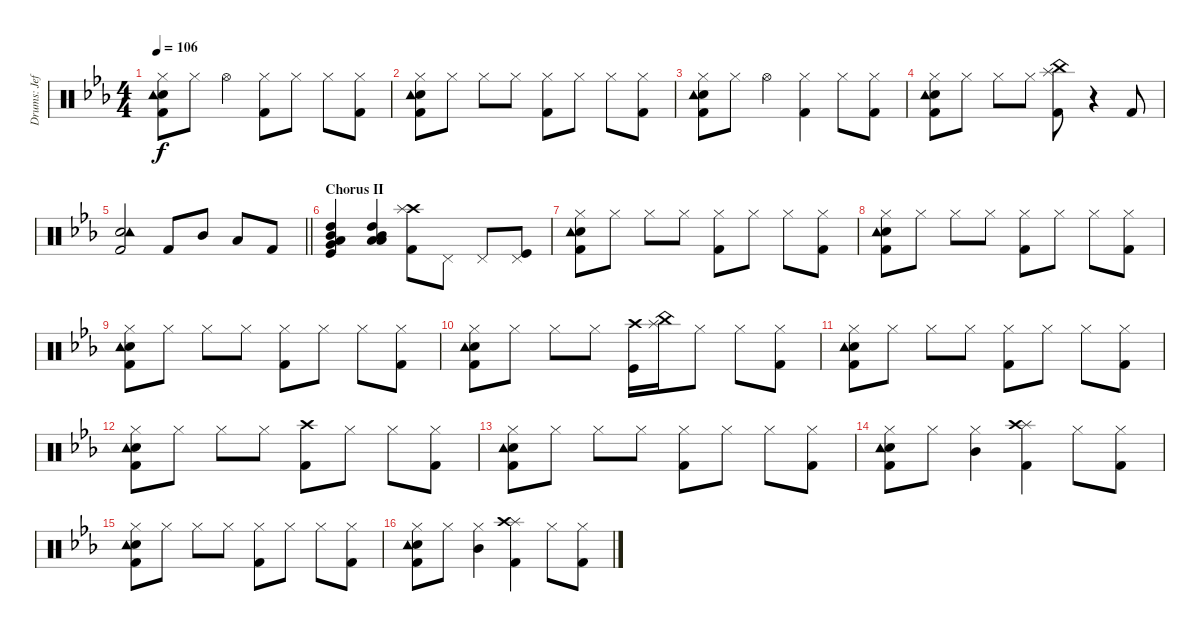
\track ("Drums: Jeff" "Drums: Jef") {instrument percussion}
\staff {score}
\articulation defaults
\ts (4 4)
\tempo 106
\clef neutral
\ks eb
("Hi-Hat (closed)" "Snare (hit) 2" "Tambourine (hit)" "Kick (hit) 2").8{dy f} "Hi-Hat (closed)".8 "Hi-Hat (open)".4 ("Hi-Hat (closed)" "Kick (hit) 2").8 "Hi-Hat (closed)".8 "Hi-Hat (closed)".8 ("Hi-Hat (closed)" "Kick (hit) 2").8 |
("Hi-Hat (closed)" "Snare (hit) 2" "Tambourine (hit)" "Kick (hit) 2").8 "Hi-Hat (closed)".8 "Hi-Hat (closed)".8 "Hi-Hat (closed)".8 ("Hi-Hat (closed)" "Kick (hit) 2").8 "Hi-Hat (closed)".8 "Hi-Hat (closed)".8 ("Hi-Hat (closed)" "Kick (hit) 2").8 |
("Hi-Hat (closed)" "Snare (hit) 2" "Tambourine (hit)" "Kick (hit) 2").8 "Hi-Hat (closed)".8 "Hi-Hat (open)".4 ("Hi-Hat (closed)" "Kick (hit) 2").4 "Hi-Hat (closed)".8 ("Hi-Hat (closed)" "Kick (hit) 2").8 |
("Hi-Hat (closed)" "Snare (hit) 2" "Tambourine (hit)" "Kick (hit) 2").8 "Hi-Hat (closed)".8 "Hi-Hat (closed)".8 "Hi-Hat (closed)".8 ("China (hit)" "Splash (hit)" "Kick (hit) 2").8 r.4 "Kick (hit) 2".8 |
\barLineRight lightlight
("Snare (hit) 2" "Tambourine (hit)" "Kick (hit) 2").2 "Kick (hit) 2".8 "Mid Tom (hit)".8 "Low Tom (hit)".8 "Kick (hit) 2".8 |
\section ("" "Chorus II")
("Very Low Tom (hit)" "Mid Tom (hit)" "Low Tom (hit)" "High Tom (hit)" "Kick (hit)").4 ("Low Floor Tom (hit)" "High Tom (hit)" "Mid Tom (hit)" "Low Tom (hit)").4 ("Crash high (hit)" "Splash (hit)" "Kick (hit) 2").8 "Pedal Hi-Hat (hit)".8 "Pedal Hi-Hat (hit)".8 ("Kick (hit)" "Pedal Hi-Hat (hit)").8 |
("Hi-Hat (closed)" "Snare (hit) 2" "Tambourine (hit)" "Kick (hit) 2").8 "Hi-Hat (closed)".8 "Hi-Hat (closed)".8 "Hi-Hat (closed)".8 ("Hi-Hat (closed)" "Kick (hit) 2").8 "Hi-Hat (closed)".8 "Hi-Hat (closed)".8 ("Hi-Hat (closed)" "Kick (hit) 2").8 |
("Hi-Hat (closed)" "Snare (hit) 2" "Tambourine (hit)" "Kick (hit) 2").8 "Hi-Hat (closed)".8 "Hi-Hat (closed)".8 "Hi-Hat (closed)".8 ("Hi-Hat (closed)" "Kick (hit) 2").8 "Hi-Hat (closed)".8 "Hi-Hat (closed)".8 ("Hi-Hat (closed)" "Kick (hit) 2").8 |
("Hi-Hat (closed)" "Snare (hit) 2" "Tambourine (hit)" "Kick (hit) 2").8 "Hi-Hat (closed)".8 "Hi-Hat (closed)".8 "Hi-Hat (closed)".8 ("Hi-Hat (closed)" "Kick (hit) 2").8 "Hi-Hat (closed)".8 "Hi-Hat (closed)".8 ("Hi-Hat (closed)" "Kick (hit) 2").8 |
("Hi-Hat (closed)" "Snare (hit) 2" "Tambourine (hit)" "Kick (hit) 2").8 "Hi-Hat (closed)".8 "Hi-Hat (closed)".8 "Hi-Hat (closed)".8 ("Kick (hit)" "Crash high (hit)").16 ("Splash (hit)" "China (hit)").16 "Hi-Hat (closed)".8 "Hi-Hat (closed)".8 ("Hi-Hat (closed)" "Kick (hit) 2").8 |
("Hi-Hat (closed)" "Snare (hit) 2" "Tambourine (hit)" "Kick (hit) 2").8 "Hi-Hat (closed)".8 "Hi-Hat (closed)".8 "Hi-Hat (closed)".8 ("Hi-Hat (closed)" "Kick (hit) 2").8 "Hi-Hat (closed)".8 "Hi-Hat (closed)".8 ("Hi-Hat (closed)" "Kick (hit) 2").8 |
("Hi-Hat (closed)" "Snare (hit) 2" "Tambourine (hit)" "Kick (hit) 2").8 "Hi-Hat (closed)".8 "Hi-Hat (closed)".8 "Hi-Hat (closed)".8 ("Crash high (hit)" "Kick (hit) 2").8 "Hi-Hat (closed)".8 "Hi-Hat (closed)".8 ("Hi-Hat (closed)" "Kick (hit) 2").8 |
("Hi-Hat (closed)" "Snare (hit) 2" "Tambourine (hit)" "Kick (hit) 2").8 "Hi-Hat (closed)".8 "Hi-Hat (closed)".8 "Hi-Hat (closed)".8 ("Hi-Hat (closed)" "Kick (hit) 2").8 "Hi-Hat (closed)".8 "Hi-Hat (closed)".8 ("Hi-Hat (closed)" "Kick (hit) 2").8 |
("Hi-Hat (closed)" "Snare (hit) 2" "Tambourine (hit)" "Kick (hit) 2").8 "Hi-Hat (closed)".8 ("Hi-Hat (closed)" "Mid Tom (hit)").4 ("Splash (hit)" "Crash high (hit)" "Kick (hit) 2").4 "Hi-Hat (closed)".8 ("Hi-Hat (closed)" "Kick (hit) 2").8 |
("Hi-Hat (closed)" "Snare (hit) 2" "Tambourine (hit)" "Kick (hit) 2").8 "Hi-Hat (closed)".8 "Hi-Hat (closed)".8 "Hi-Hat (closed)".8 ("Hi-Hat (closed)" "Kick (hit) 2").8 "Hi-Hat (closed)".8 "Hi-Hat (closed)".8 ("Hi-Hat (closed)" "Kick (hit) 2").8 |
("Hi-Hat (closed)" "Snare (hit) 2" "Tambourine (hit)" "Kick (hit) 2").8 "Hi-Hat (closed)".8 ("Hi-Hat (closed)" "Mid Tom (hit)").4 ("Splash (hit)" "Crash high (hit)" "Kick (hit) 2").4 "Hi-Hat (closed)".8 ("Hi-Hat (closed)" "Kick (hit) 2").8
